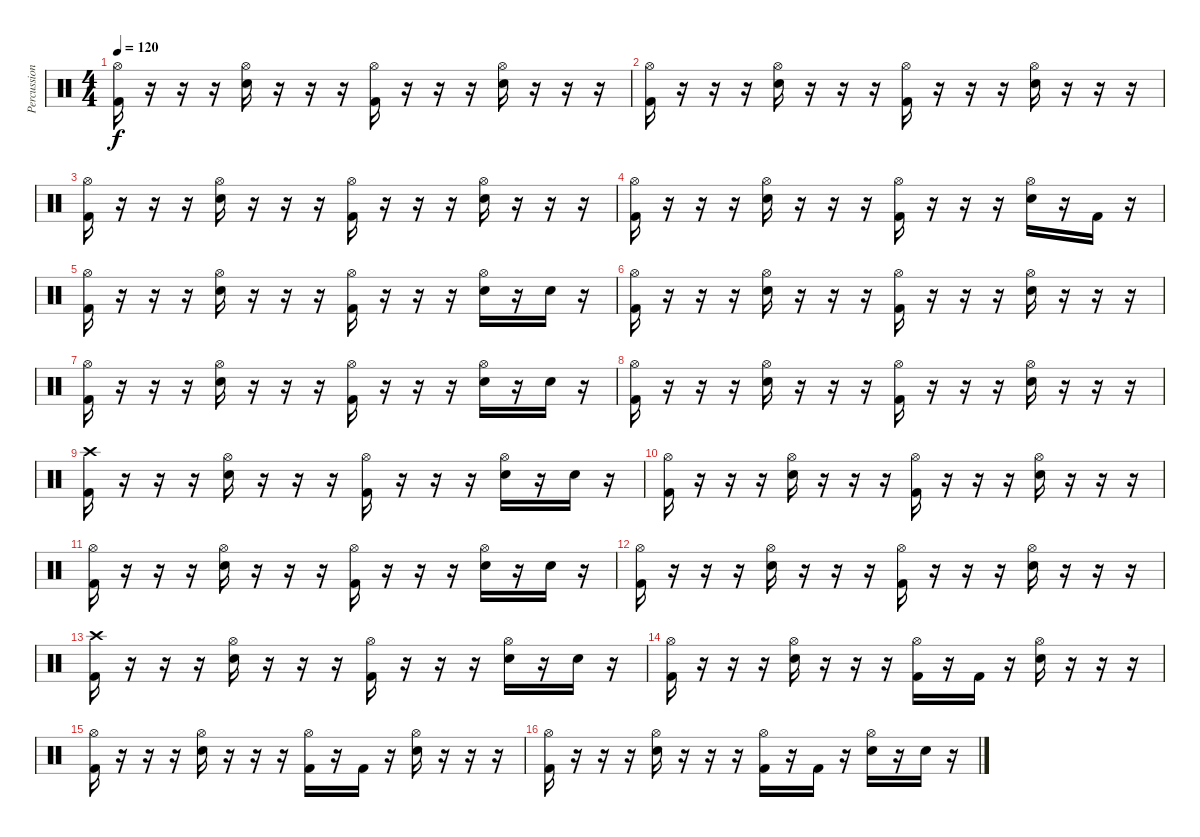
\track ("Percussion" "Percussion") {instrument percussion}
\staff {score}
\articulation defaults
\ts (4 4)
\tempo 120
\clef neutral
\ks c
("Hi-Hat (open)" "Kick (hit) 2").16{dy f} r.16 r.16 r.16 ("Hi-Hat (open)" "Electric Snare (hit)").16 r.16 r.16 r.16 ("Hi-Hat (open)" "Kick (hit) 2").16 r.16 r.16 r.16 ("Hi-Hat (open)" "Electric Snare (hit)").16 r.16 r.16 r.16 |
("Hi-Hat (open)" "Kick (hit) 2").16 r.16 r.16 r.16 ("Hi-Hat (open)" "Electric Snare (hit)").16 r.16 r.16 r.16 ("Hi-Hat (open)" "Kick (hit) 2").16 r.16 r.16 r.16 ("Hi-Hat (open)" "Electric Snare (hit)").16 r.16 r.16 r.16 |
("Hi-Hat (open)" "Kick (hit) 2").16 r.16 r.16 r.16 ("Hi-Hat (open)" "Electric Snare (hit)").16 r.16 r.16 r.16 ("Hi-Hat (open)" "Kick (hit) 2").16 r.16 r.16 r.16 ("Hi-Hat (open)" "Electric Snare (hit)").16 r.16 r.16 r.16 |
("Hi-Hat (open)" "Kick (hit) 2").16 r.16 r.16 r.16 ("Hi-Hat (open)" "Electric Snare (hit)").16 r.16 r.16 r.16 ("Hi-Hat (open)" "Kick (hit) 2").16 r.16 r.16 r.16 ("Hi-Hat (open)" "Electric Snare (hit)").16 r.16 "Kick (hit) 2".16 r.16 |
("Hi-Hat (open)" "Kick (hit) 2").16 r.16 r.16 r.16 ("Hi-Hat (open)" "Electric Snare (hit)").16 r.16 r.16 r.16 ("Hi-Hat (open)" "Kick (hit) 2").16 r.16 r.16 r.16 ("Hi-Hat (open)" "Electric Snare (hit)").16 r.16 "Electric Snare (hit)".16 r.16 |
("Hi-Hat (open)" "Kick (hit) 2").16 r.16 r.16 r.16 ("Hi-Hat (open)" "Electric Snare (hit)").16 r.16 r.16 r.16 ("Hi-Hat (open)" "Kick (hit) 2").16 r.16 r.16 r.16 ("Hi-Hat (open)" "Electric Snare (hit)").16 r.16 r.16 r.16 |
("Hi-Hat (open)" "Kick (hit) 2").16 r.16 r.16 r.16 ("Hi-Hat (open)" "Electric Snare (hit)").16 r.16 r.16 r.16 ("Hi-Hat (open)" "Kick (hit) 2").16 r.16 r.16 r.16 ("Hi-Hat (open)" "Electric Snare (hit)").16 r.16 "Electric Snare (hit)".16 r.16 |
("Hi-Hat (open)" "Kick (hit) 2").16 r.16 r.16 r.16 ("Hi-Hat (open)" "Electric Snare (hit)").16 r.16 r.16 r.16 ("Hi-Hat (open)" "Kick (hit) 2").16 r.16 r.16 r.16 ("Hi-Hat (open)" "Electric Snare (hit)").16 r.16 r.16 r.16 |
("Crash high (hit)" "Kick (hit) 2").16 r.16 r.16 r.16 ("Hi-Hat (open)" "Electric Snare (hit)").16 r.16 r.16 r.16 ("Hi-Hat (open)" "Kick (hit) 2").16 r.16 r.16 r.16 ("Hi-Hat (open)" "Electric Snare (hit)").16 r.16 "Electric Snare (hit)".16 r.16 |
("Hi-Hat (open)" "Kick (hit) 2").16 r.16 r.16 r.16 ("Hi-Hat (open)" "Electric Snare (hit)").16 r.16 r.16 r.16 ("Hi-Hat (open)" "Kick (hit) 2").16 r.16 r.16 r.16 ("Hi-Hat (open)" "Electric Snare (hit)").16 r.16 r.16 r.16 |
("Hi-Hat (open)" "Kick (hit) 2").16 r.16 r.16 r.16 ("Hi-Hat (open)" "Electric Snare (hit)").16 r.16 r.16 r.16 ("Hi-Hat (open)" "Kick (hit) 2").16 r.16 r.16 r.16 ("Hi-Hat (open)" "Electric Snare (hit)").16 r.16 "Electric Snare (hit)".16 r.16 |
("Hi-Hat (open)" "Kick (hit) 2").16 r.16 r.16 r.16 ("Hi-Hat (open)" "Electric Snare (hit)").16 r.16 r.16 r.16 ("Hi-Hat (open)" "Kick (hit) 2").16 r.16 r.16 r.16 ("Hi-Hat (open)" "Electric Snare (hit)").16 r.16 r.16 r.16 |
("Crash high (hit)" "Kick (hit) 2").16 r.16 r.16 r.16 ("Hi-Hat (open)" "Electric Snare (hit)").16 r.16 r.16 r.16 ("Hi-Hat (open)" "Kick (hit) 2").16 r.16 r.16 r.16 ("Hi-Hat (open)" "Electric Snare (hit)").16 r.16 "Electric Snare (hit)".16 r.16 |
("Hi-Hat (open)" "Kick (hit) 2").16 r.16 r.16 r.16 ("Hi-Hat (open)" "Electric Snare (hit)").16 r.16 r.16 r.16 ("Hi-Hat (open)" "Kick (hit) 2").16 r.16 "Kick (hit) 2".16 r.16 ("Hi-Hat (open)" "Electric Snare (hit)").16 r.16 r.16 r.16 |
("Hi-Hat (open)" "Kick (hit) 2").16 r.16 r.16 r.16 ("Hi-Hat (open)" "Electric Snare (hit)").16 r.16 r.16 r.16 ("Hi-Hat (open)" "Kick (hit) 2").16 r.16 "Kick (hit) 2".16 r.16 ("Hi-Hat (open)" "Electric Snare (hit)").16 r.16 r.16 r.16 |
("Hi-Hat (open)" "Kick (hit) 2").16 r.16 r.16 r.16 ("Hi-Hat (open)" "Electric Snare (hit)").16 r.16 r.16 r.16 ("Hi-Hat (open)" "Kick (hit) 2").16 r.16 "Kick (hit) 2".16 r.16 ("Hi-Hat (open)" "Electric Snare (hit)").16 r.16 "Electric Snare (hit)".16 r.16
